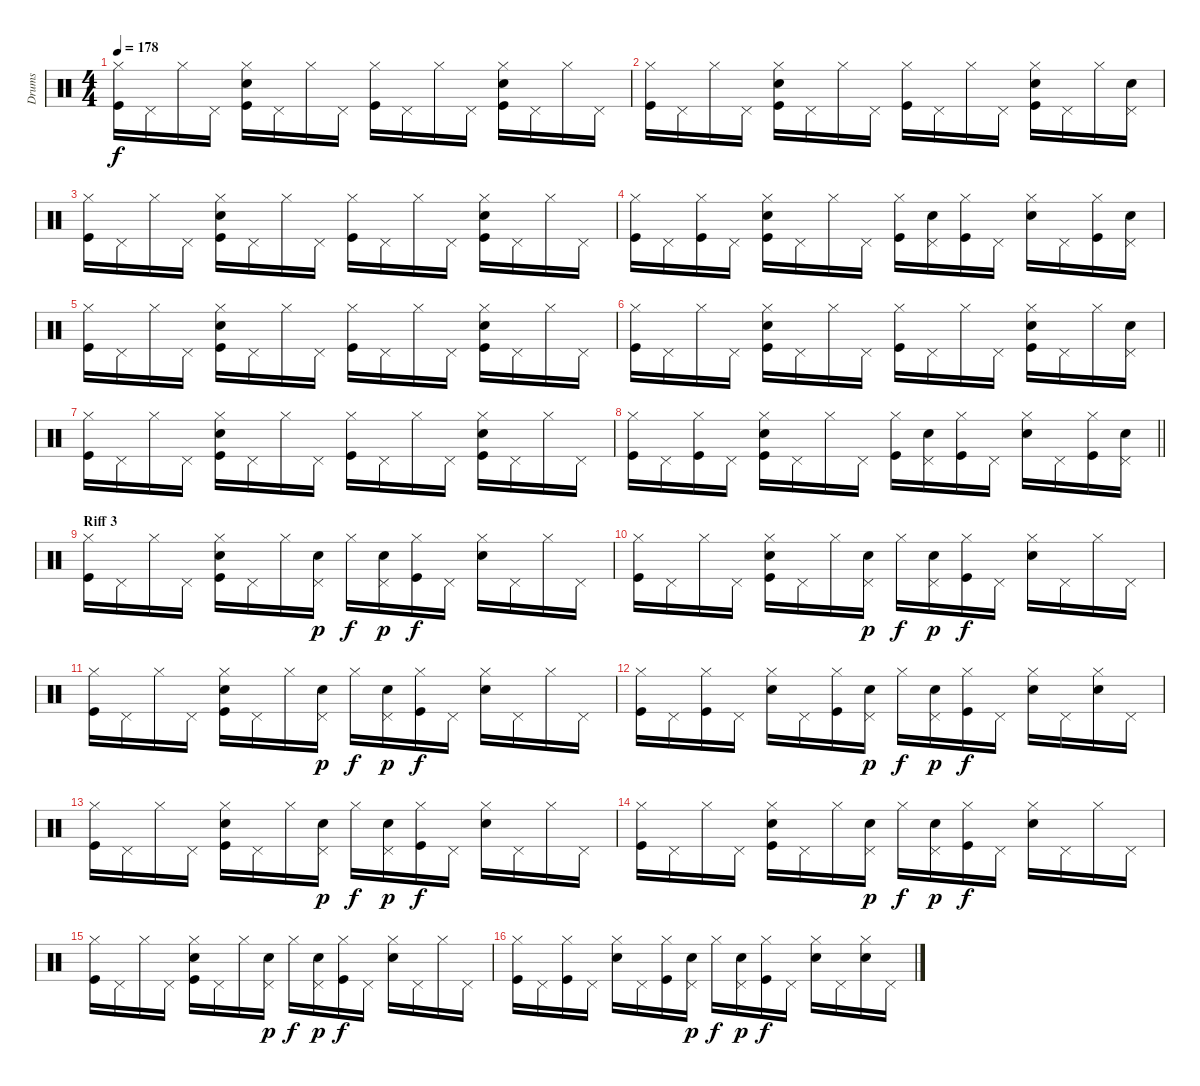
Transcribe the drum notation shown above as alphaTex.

\track ("Drums" "Drums") {instrument percussion}
\staff {score}
\articulation defaults
\ts (4 4)
\tempo 178
\clef neutral
\ks c
("Kick (hit)" "Hi-Hat (closed)").16{dy f} "Pedal Hi-Hat (hit)".16 "Hi-Hat (closed)".16 "Pedal Hi-Hat (hit)".16 ("Kick (hit)" "Electric Snare (hit)" "Hi-Hat (closed)").16 "Pedal Hi-Hat (hit)".16 "Hi-Hat (closed)".16 "Pedal Hi-Hat (hit)".16 ("Kick (hit)" "Hi-Hat (closed)").16 "Pedal Hi-Hat (hit)".16 "Hi-Hat (closed)".16 "Pedal Hi-Hat (hit)".16 ("Kick (hit)" "Electric Snare (hit)" "Hi-Hat (closed)").16 "Pedal Hi-Hat (hit)".16 "Hi-Hat (closed)".16 "Pedal Hi-Hat (hit)".16 |
("Kick (hit)" "Hi-Hat (closed)").16 "Pedal Hi-Hat (hit)".16 "Hi-Hat (closed)".16 "Pedal Hi-Hat (hit)".16 ("Kick (hit)" "Electric Snare (hit)" "Hi-Hat (closed)").16 "Pedal Hi-Hat (hit)".16 "Hi-Hat (closed)".16 "Pedal Hi-Hat (hit)".16 ("Kick (hit)" "Hi-Hat (closed)").16 "Pedal Hi-Hat (hit)".16 "Hi-Hat (closed)".16 "Pedal Hi-Hat (hit)".16 ("Kick (hit)" "Electric Snare (hit)" "Hi-Hat (closed)").16 "Pedal Hi-Hat (hit)".16 "Hi-Hat (closed)".16 ("Electric Snare (hit)" "Pedal Hi-Hat (hit)").16 |
("Kick (hit)" "Hi-Hat (closed)").16 "Pedal Hi-Hat (hit)".16 "Hi-Hat (closed)".16 "Pedal Hi-Hat (hit)".16 ("Kick (hit)" "Electric Snare (hit)" "Hi-Hat (closed)").16 "Pedal Hi-Hat (hit)".16 "Hi-Hat (closed)".16 "Pedal Hi-Hat (hit)".16 ("Kick (hit)" "Hi-Hat (closed)").16 "Pedal Hi-Hat (hit)".16 "Hi-Hat (closed)".16 "Pedal Hi-Hat (hit)".16 ("Kick (hit)" "Electric Snare (hit)" "Hi-Hat (closed)").16 "Pedal Hi-Hat (hit)".16 "Hi-Hat (closed)".16 "Pedal Hi-Hat (hit)".16 |
("Kick (hit)" "Hi-Hat (closed)").16 "Pedal Hi-Hat (hit)".16 ("Kick (hit)" "Hi-Hat (closed)").16 "Pedal Hi-Hat (hit)".16 ("Kick (hit)" "Electric Snare (hit)" "Hi-Hat (closed)").16 "Pedal Hi-Hat (hit)".16 "Hi-Hat (closed)".16 "Pedal Hi-Hat (hit)".16 ("Kick (hit)" "Hi-Hat (closed)").16 ("Electric Snare (hit)" "Pedal Hi-Hat (hit)").16 ("Kick (hit)" "Hi-Hat (closed)").16 "Pedal Hi-Hat (hit)".16 ("Electric Snare (hit)" "Hi-Hat (closed)").16 "Pedal Hi-Hat (hit)".16 ("Kick (hit)" "Hi-Hat (closed)").16 ("Electric Snare (hit)" "Pedal Hi-Hat (hit)").16 |
("Kick (hit)" "Hi-Hat (closed)").16 "Pedal Hi-Hat (hit)".16 "Hi-Hat (closed)".16 "Pedal Hi-Hat (hit)".16 ("Kick (hit)" "Electric Snare (hit)" "Hi-Hat (closed)").16 "Pedal Hi-Hat (hit)".16 "Hi-Hat (closed)".16 "Pedal Hi-Hat (hit)".16 ("Kick (hit)" "Hi-Hat (closed)").16 "Pedal Hi-Hat (hit)".16 "Hi-Hat (closed)".16 "Pedal Hi-Hat (hit)".16 ("Kick (hit)" "Electric Snare (hit)" "Hi-Hat (closed)").16 "Pedal Hi-Hat (hit)".16 "Hi-Hat (closed)".16 "Pedal Hi-Hat (hit)".16 |
("Kick (hit)" "Hi-Hat (closed)").16 "Pedal Hi-Hat (hit)".16 "Hi-Hat (closed)".16 "Pedal Hi-Hat (hit)".16 ("Kick (hit)" "Electric Snare (hit)" "Hi-Hat (closed)").16 "Pedal Hi-Hat (hit)".16 "Hi-Hat (closed)".16 "Pedal Hi-Hat (hit)".16 ("Kick (hit)" "Hi-Hat (closed)").16 "Pedal Hi-Hat (hit)".16 "Hi-Hat (closed)".16 "Pedal Hi-Hat (hit)".16 ("Kick (hit)" "Electric Snare (hit)" "Hi-Hat (closed)").16 "Pedal Hi-Hat (hit)".16 "Hi-Hat (closed)".16 ("Electric Snare (hit)" "Pedal Hi-Hat (hit)").16 |
("Kick (hit)" "Hi-Hat (closed)").16 "Pedal Hi-Hat (hit)".16 "Hi-Hat (closed)".16 "Pedal Hi-Hat (hit)".16 ("Kick (hit)" "Electric Snare (hit)" "Hi-Hat (closed)").16 "Pedal Hi-Hat (hit)".16 "Hi-Hat (closed)".16 "Pedal Hi-Hat (hit)".16 ("Kick (hit)" "Hi-Hat (closed)").16 "Pedal Hi-Hat (hit)".16 "Hi-Hat (closed)".16 "Pedal Hi-Hat (hit)".16 ("Kick (hit)" "Electric Snare (hit)" "Hi-Hat (closed)").16 "Pedal Hi-Hat (hit)".16 "Hi-Hat (closed)".16 "Pedal Hi-Hat (hit)".16 |
\barLineRight lightlight
("Kick (hit)" "Hi-Hat (closed)").16 "Pedal Hi-Hat (hit)".16 ("Kick (hit)" "Hi-Hat (closed)").16 "Pedal Hi-Hat (hit)".16 ("Kick (hit)" "Electric Snare (hit)" "Hi-Hat (closed)").16 "Pedal Hi-Hat (hit)".16 "Hi-Hat (closed)".16 "Pedal Hi-Hat (hit)".16 ("Kick (hit)" "Hi-Hat (closed)").16 ("Electric Snare (hit)" "Pedal Hi-Hat (hit)").16 ("Kick (hit)" "Hi-Hat (closed)").16 "Pedal Hi-Hat (hit)".16 ("Electric Snare (hit)" "Hi-Hat (closed)").16 "Pedal Hi-Hat (hit)".16 ("Kick (hit)" "Hi-Hat (closed)").16 ("Electric Snare (hit)" "Pedal Hi-Hat (hit)").16 |
\section ("" "Riff 3")
("Kick (hit)" "Hi-Hat (closed)").16 "Pedal Hi-Hat (hit)".16 "Hi-Hat (closed)".16 "Pedal Hi-Hat (hit)".16 ("Kick (hit)" "Electric Snare (hit)" "Hi-Hat (closed)").16 "Pedal Hi-Hat (hit)".16 "Hi-Hat (closed)".16 ("Electric Snare (hit)" "Pedal Hi-Hat (hit)").16{dy p} "Hi-Hat (closed)".16{dy f} ("Electric Snare (hit)" "Pedal Hi-Hat (hit)").16{dy p} ("Kick (hit)" "Hi-Hat (closed)").16{dy f} "Pedal Hi-Hat (hit)".16 ("Electric Snare (hit)" "Hi-Hat (closed)").16 "Pedal Hi-Hat (hit)".16 "Hi-Hat (closed)".16 "Pedal Hi-Hat (hit)".16 |
("Kick (hit)" "Hi-Hat (closed)").16 "Pedal Hi-Hat (hit)".16 "Hi-Hat (closed)".16 "Pedal Hi-Hat (hit)".16 ("Kick (hit)" "Electric Snare (hit)" "Hi-Hat (closed)").16 "Pedal Hi-Hat (hit)".16 "Hi-Hat (closed)".16 ("Electric Snare (hit)" "Pedal Hi-Hat (hit)").16{dy p} "Hi-Hat (closed)".16{dy f} ("Electric Snare (hit)" "Pedal Hi-Hat (hit)").16{dy p} ("Kick (hit)" "Hi-Hat (closed)").16{dy f} "Pedal Hi-Hat (hit)".16 ("Electric Snare (hit)" "Hi-Hat (closed)").16 "Pedal Hi-Hat (hit)".16 "Hi-Hat (closed)".16 "Pedal Hi-Hat (hit)".16 |
("Kick (hit)" "Hi-Hat (closed)").16 "Pedal Hi-Hat (hit)".16 "Hi-Hat (closed)".16 "Pedal Hi-Hat (hit)".16 ("Kick (hit)" "Electric Snare (hit)" "Hi-Hat (closed)").16 "Pedal Hi-Hat (hit)".16 "Hi-Hat (closed)".16 ("Electric Snare (hit)" "Pedal Hi-Hat (hit)").16{dy p} "Hi-Hat (closed)".16{dy f} ("Electric Snare (hit)" "Pedal Hi-Hat (hit)").16{dy p} ("Kick (hit)" "Hi-Hat (closed)").16{dy f} "Pedal Hi-Hat (hit)".16 ("Electric Snare (hit)" "Hi-Hat (closed)").16 "Pedal Hi-Hat (hit)".16 "Hi-Hat (closed)".16 "Pedal Hi-Hat (hit)".16 |
("Kick (hit)" "Hi-Hat (closed)").16 "Pedal Hi-Hat (hit)".16 ("Kick (hit)" "Hi-Hat (closed)").16 "Pedal Hi-Hat (hit)".16 ("Electric Snare (hit)" "Hi-Hat (closed)").16 "Pedal Hi-Hat (hit)".16 ("Kick (hit)" "Hi-Hat (closed)").16 ("Electric Snare (hit)" "Pedal Hi-Hat (hit)").16{dy p} "Hi-Hat (closed)".16{dy f} ("Electric Snare (hit)" "Pedal Hi-Hat (hit)").16{dy p} ("Kick (hit)" "Hi-Hat (closed)").16{dy f} "Pedal Hi-Hat (hit)".16 ("Electric Snare (hit)" "Hi-Hat (closed)").16 "Pedal Hi-Hat (hit)".16 ("Electric Snare (hit)" "Hi-Hat (closed)").16 "Pedal Hi-Hat (hit)".16 |
("Kick (hit)" "Hi-Hat (closed)").16 "Pedal Hi-Hat (hit)".16 "Hi-Hat (closed)".16 "Pedal Hi-Hat (hit)".16 ("Kick (hit)" "Electric Snare (hit)" "Hi-Hat (closed)").16 "Pedal Hi-Hat (hit)".16 "Hi-Hat (closed)".16 ("Electric Snare (hit)" "Pedal Hi-Hat (hit)").16{dy p} "Hi-Hat (closed)".16{dy f} ("Electric Snare (hit)" "Pedal Hi-Hat (hit)").16{dy p} ("Kick (hit)" "Hi-Hat (closed)").16{dy f} "Pedal Hi-Hat (hit)".16 ("Electric Snare (hit)" "Hi-Hat (closed)").16 "Pedal Hi-Hat (hit)".16 "Hi-Hat (closed)".16 "Pedal Hi-Hat (hit)".16 |
("Kick (hit)" "Hi-Hat (closed)").16 "Pedal Hi-Hat (hit)".16 "Hi-Hat (closed)".16 "Pedal Hi-Hat (hit)".16 ("Kick (hit)" "Electric Snare (hit)" "Hi-Hat (closed)").16 "Pedal Hi-Hat (hit)".16 "Hi-Hat (closed)".16 ("Electric Snare (hit)" "Pedal Hi-Hat (hit)").16{dy p} "Hi-Hat (closed)".16{dy f} ("Electric Snare (hit)" "Pedal Hi-Hat (hit)").16{dy p} ("Kick (hit)" "Hi-Hat (closed)").16{dy f} "Pedal Hi-Hat (hit)".16 ("Electric Snare (hit)" "Hi-Hat (closed)").16 "Pedal Hi-Hat (hit)".16 "Hi-Hat (closed)".16 "Pedal Hi-Hat (hit)".16 |
("Kick (hit)" "Hi-Hat (closed)").16 "Pedal Hi-Hat (hit)".16 "Hi-Hat (closed)".16 "Pedal Hi-Hat (hit)".16 ("Kick (hit)" "Electric Snare (hit)" "Hi-Hat (closed)").16 "Pedal Hi-Hat (hit)".16 "Hi-Hat (closed)".16 ("Electric Snare (hit)" "Pedal Hi-Hat (hit)").16{dy p} "Hi-Hat (closed)".16{dy f} ("Electric Snare (hit)" "Pedal Hi-Hat (hit)").16{dy p} ("Kick (hit)" "Hi-Hat (closed)").16{dy f} "Pedal Hi-Hat (hit)".16 ("Electric Snare (hit)" "Hi-Hat (closed)").16 "Pedal Hi-Hat (hit)".16 "Hi-Hat (closed)".16 "Pedal Hi-Hat (hit)".16 |
("Kick (hit)" "Hi-Hat (closed)").16 "Pedal Hi-Hat (hit)".16 ("Kick (hit)" "Hi-Hat (closed)").16 "Pedal Hi-Hat (hit)".16 ("Electric Snare (hit)" "Hi-Hat (closed)").16 "Pedal Hi-Hat (hit)".16 ("Kick (hit)" "Hi-Hat (closed)").16 ("Electric Snare (hit)" "Pedal Hi-Hat (hit)").16{dy p} "Hi-Hat (closed)".16{dy f} ("Electric Snare (hit)" "Pedal Hi-Hat (hit)").16{dy p} ("Kick (hit)" "Hi-Hat (closed)").16{dy f} "Pedal Hi-Hat (hit)".16 ("Electric Snare (hit)" "Hi-Hat (closed)").16 "Pedal Hi-Hat (hit)".16 ("Electric Snare (hit)" "Hi-Hat (closed)").16 "Pedal Hi-Hat (hit)".16
